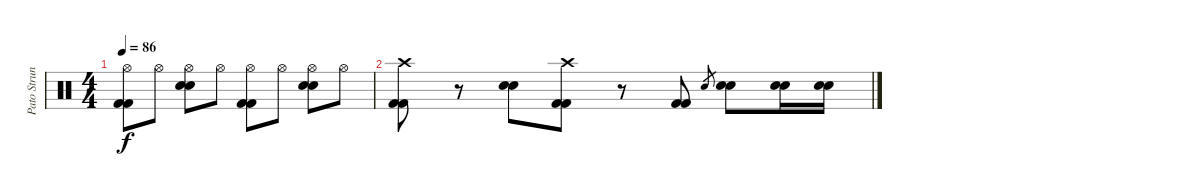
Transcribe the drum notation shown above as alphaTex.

\track ("Pato Strunz (Bateria)" "Pato Strun") {instrument percussion}
\staff {score}
\articulation defaults
\ts (4 4)
\tempo 86
\clef neutral
\ks c
("Hi-Hat (open)" "Kick (hit) 2" "Kick (hit) 2").8{dy f} "Hi-Hat (open)".8 ("Hi-Hat (open)" "Snare (hit) 2" "Snare (hit) 2").8 "Hi-Hat (open)".8 ("Hi-Hat (open)" "Kick (hit) 2" "Kick (hit) 2").8 "Hi-Hat (open)".8 ("Hi-Hat (open)" "Snare (hit) 2" "Snare (hit) 2").8 "Hi-Hat (open)".8 |
("Crash high (hit)" "Kick (hit) 2" "Kick (hit) 2").8 r.8 ("Snare (hit) 2" "Snare (hit) 2").8 ("Crash high (hit)" "Kick (hit) 2" "Kick (hit) 2").8 r.8 ("Kick (hit) 2" "Kick (hit) 2").8 "Snare (hit) 2".8{gr} ("Snare (hit) 2" "Snare (hit) 2").8 ("Snare (hit) 2" "Snare (hit) 2").16 ("Snare (hit) 2" "Snare (hit) 2").16
